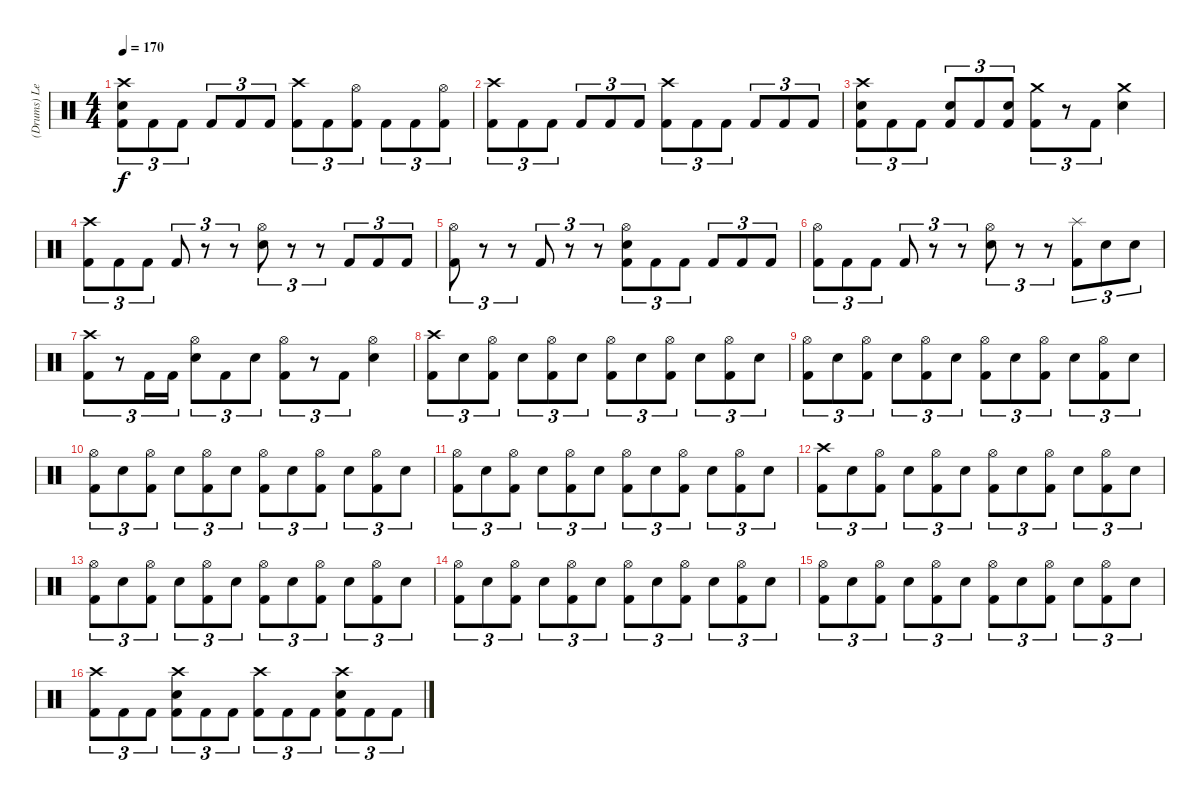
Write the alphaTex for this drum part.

\track ("(Drums) Leche" "(Drums) Le") {instrument percussion}
\staff {score}
\articulation defaults
\ts (4 4)
\tempo 170
\clef neutral
\ks c
("Crash high (hit)" "Electric Snare (hit)" "Kick (hit) 2").8{tu (3 2) dy f} "Kick (hit) 2".8{tu (3 2)} "Kick (hit) 2".8{tu (3 2)} "Kick (hit) 2".8{tu (3 2)} "Kick (hit) 2".8{tu (3 2)} "Kick (hit) 2".8{tu (3 2)} ("Crash high (hit)" "Kick (hit) 2").8{tu (3 2)} "Kick (hit) 2".8{tu (3 2)} ("Hi-Hat (open)" "Kick (hit) 2").8{tu (3 2)} "Kick (hit) 2".8{tu (3 2)} "Kick (hit) 2".8{tu (3 2)} ("Hi-Hat (open)" "Kick (hit) 2").8{tu (3 2)} |
("Crash high (hit)" "Kick (hit) 2").8{tu (3 2)} "Kick (hit) 2".8{tu (3 2)} "Kick (hit) 2".8{tu (3 2)} "Kick (hit) 2".8{tu (3 2)} "Kick (hit) 2".8{tu (3 2)} "Kick (hit) 2".8{tu (3 2)} ("Crash high (hit)" "Kick (hit) 2").8{tu (3 2)} "Kick (hit) 2".8{tu (3 2)} "Kick (hit) 2".8{tu (3 2)} "Kick (hit) 2".8{tu (3 2)} "Kick (hit) 2".8{tu (3 2)} "Kick (hit) 2".8{tu (3 2)} |
("Crash high (hit)" "Electric Snare (hit)" "Kick (hit) 2").8{tu (3 2)} "Kick (hit) 2".8{tu (3 2)} "Kick (hit) 2".8{tu (3 2)} ("Electric Snare (hit)" "Kick (hit) 2").8{tu (3 2)} "Kick (hit) 2".8{tu (3 2)} ("Electric Snare (hit)" "Kick (hit) 2").8{tu (3 2)} ("Crash medium (hit)" "Kick (hit) 2").8{tu (3 2)} r.8{tu (3 2)} "Kick (hit) 2".8{tu (3 2)} ("Crash medium (hit)" "Electric Snare (hit)").4 |
("Crash high (hit)" "Kick (hit) 2").8{tu (3 2)} "Kick (hit) 2".8{tu (3 2)} "Kick (hit) 2".8{tu (3 2)} "Kick (hit) 2".8{tu (3 2)} r.8{tu (3 2)} r.8{tu (3 2)} ("Hi-Hat (open)" "Electric Snare (hit)").8{tu (3 2)} r.8{tu (3 2)} r.8{tu (3 2)} "Kick (hit) 2".8{tu (3 2)} "Kick (hit) 2".8{tu (3 2)} "Kick (hit) 2".8{tu (3 2)} |
("Hi-Hat (open)" "Kick (hit) 2").8{tu (3 2)} r.8{tu (3 2)} r.8{tu (3 2)} "Kick (hit) 2".8{tu (3 2)} r.8{tu (3 2)} r.8{tu (3 2)} ("Hi-Hat (open)" "Electric Snare (hit)" "Kick (hit) 2").8{tu (3 2)} "Kick (hit) 2".8{tu (3 2)} "Kick (hit) 2".8{tu (3 2)} "Kick (hit) 2".8{tu (3 2)} "Kick (hit) 2".8{tu (3 2)} "Kick (hit) 2".8{tu (3 2)} |
("Hi-Hat (open)" "Kick (hit) 2").8{tu (3 2)} "Kick (hit) 2".8{tu (3 2)} "Kick (hit) 2".8{tu (3 2)} "Kick (hit) 2".8{tu (3 2)} r.8{tu (3 2)} r.8{tu (3 2)} ("Hi-Hat (open)" "Electric Snare (hit)").8{tu (3 2)} r.8{tu (3 2)} r.8{tu (3 2)} ("Splash (hit)" "Kick (hit) 2").8{tu (3 2)} "Electric Snare (hit)".8{tu (3 2)} "Electric Snare (hit)".8{tu (3 2)} |
("Crash high (hit)" "Kick (hit) 2").8{tu (3 2)} r.8{tu (3 2)} "Kick (hit) 2".16{tu (3 2)} "Kick (hit) 2".16{tu (3 2)} ("Hi-Hat (open)" "Electric Snare (hit)").8{tu (3 2)} "Kick (hit) 2".8{tu (3 2)} "Electric Snare (hit)".8{tu (3 2)} ("Hi-Hat (open)" "Kick (hit) 2").8{tu (3 2)} r.8{tu (3 2)} "Kick (hit) 2".8{tu (3 2)} ("Hi-Hat (open)" "Electric Snare (hit)").4 |
("Crash high (hit)" "Kick (hit) 2").8{tu (3 2)} "Electric Snare (hit)".8{tu (3 2)} ("Hi-Hat (open)" "Kick (hit) 2").8{tu (3 2)} "Electric Snare (hit)".8{tu (3 2)} ("Hi-Hat (open)" "Kick (hit) 2").8{tu (3 2)} "Electric Snare (hit)".8{tu (3 2)} ("Hi-Hat (open)" "Kick (hit) 2").8{tu (3 2)} "Electric Snare (hit)".8{tu (3 2)} ("Hi-Hat (open)" "Kick (hit) 2").8{tu (3 2)} "Electric Snare (hit)".8{tu (3 2)} ("Hi-Hat (open)" "Kick (hit) 2").8{tu (3 2)} "Electric Snare (hit)".8{tu (3 2)} |
("Hi-Hat (open)" "Kick (hit) 2").8{tu (3 2)} "Electric Snare (hit)".8{tu (3 2)} ("Hi-Hat (open)" "Kick (hit) 2").8{tu (3 2)} "Electric Snare (hit)".8{tu (3 2)} ("Hi-Hat (open)" "Kick (hit) 2").8{tu (3 2)} "Electric Snare (hit)".8{tu (3 2)} ("Hi-Hat (open)" "Kick (hit) 2").8{tu (3 2)} "Electric Snare (hit)".8{tu (3 2)} ("Hi-Hat (open)" "Kick (hit) 2").8{tu (3 2)} "Electric Snare (hit)".8{tu (3 2)} ("Hi-Hat (open)" "Kick (hit) 2").8{tu (3 2)} "Electric Snare (hit)".8{tu (3 2)} |
("Hi-Hat (open)" "Kick (hit) 2").8{tu (3 2)} "Electric Snare (hit)".8{tu (3 2)} ("Hi-Hat (open)" "Kick (hit) 2").8{tu (3 2)} "Electric Snare (hit)".8{tu (3 2)} ("Hi-Hat (open)" "Kick (hit) 2").8{tu (3 2)} "Electric Snare (hit)".8{tu (3 2)} ("Hi-Hat (open)" "Kick (hit) 2").8{tu (3 2)} "Electric Snare (hit)".8{tu (3 2)} ("Hi-Hat (open)" "Kick (hit) 2").8{tu (3 2)} "Electric Snare (hit)".8{tu (3 2)} ("Hi-Hat (open)" "Kick (hit) 2").8{tu (3 2)} "Electric Snare (hit)".8{tu (3 2)} |
("Hi-Hat (open)" "Kick (hit) 2").8{tu (3 2)} "Electric Snare (hit)".8{tu (3 2)} ("Hi-Hat (open)" "Kick (hit) 2").8{tu (3 2)} "Electric Snare (hit)".8{tu (3 2)} ("Hi-Hat (open)" "Kick (hit) 2").8{tu (3 2)} "Electric Snare (hit)".8{tu (3 2)} ("Hi-Hat (open)" "Kick (hit) 2").8{tu (3 2)} "Electric Snare (hit)".8{tu (3 2)} ("Hi-Hat (open)" "Kick (hit) 2").8{tu (3 2)} "Electric Snare (hit)".8{tu (3 2)} ("Hi-Hat (open)" "Kick (hit) 2").8{tu (3 2)} "Electric Snare (hit)".8{tu (3 2)} |
("Crash high (hit)" "Kick (hit) 2").8{tu (3 2)} "Electric Snare (hit)".8{tu (3 2)} ("Hi-Hat (open)" "Kick (hit) 2").8{tu (3 2)} "Electric Snare (hit)".8{tu (3 2)} ("Hi-Hat (open)" "Kick (hit) 2").8{tu (3 2)} "Electric Snare (hit)".8{tu (3 2)} ("Hi-Hat (open)" "Kick (hit) 2").8{tu (3 2)} "Electric Snare (hit)".8{tu (3 2)} ("Hi-Hat (open)" "Kick (hit) 2").8{tu (3 2)} "Electric Snare (hit)".8{tu (3 2)} ("Hi-Hat (open)" "Kick (hit) 2").8{tu (3 2)} "Electric Snare (hit)".8{tu (3 2)} |
("Hi-Hat (open)" "Kick (hit) 2").8{tu (3 2)} "Electric Snare (hit)".8{tu (3 2)} ("Hi-Hat (open)" "Kick (hit) 2").8{tu (3 2)} "Electric Snare (hit)".8{tu (3 2)} ("Hi-Hat (open)" "Kick (hit) 2").8{tu (3 2)} "Electric Snare (hit)".8{tu (3 2)} ("Hi-Hat (open)" "Kick (hit) 2").8{tu (3 2)} "Electric Snare (hit)".8{tu (3 2)} ("Hi-Hat (open)" "Kick (hit) 2").8{tu (3 2)} "Electric Snare (hit)".8{tu (3 2)} ("Hi-Hat (open)" "Kick (hit) 2").8{tu (3 2)} "Electric Snare (hit)".8{tu (3 2)} |
("Hi-Hat (open)" "Kick (hit) 2").8{tu (3 2)} "Electric Snare (hit)".8{tu (3 2)} ("Hi-Hat (open)" "Kick (hit) 2").8{tu (3 2)} "Electric Snare (hit)".8{tu (3 2)} ("Hi-Hat (open)" "Kick (hit) 2").8{tu (3 2)} "Electric Snare (hit)".8{tu (3 2)} ("Hi-Hat (open)" "Kick (hit) 2").8{tu (3 2)} "Electric Snare (hit)".8{tu (3 2)} ("Hi-Hat (open)" "Kick (hit) 2").8{tu (3 2)} "Electric Snare (hit)".8{tu (3 2)} ("Hi-Hat (open)" "Kick (hit) 2").8{tu (3 2)} "Electric Snare (hit)".8{tu (3 2)} |
("Hi-Hat (open)" "Kick (hit) 2").8{tu (3 2)} "Electric Snare (hit)".8{tu (3 2)} ("Hi-Hat (open)" "Kick (hit) 2").8{tu (3 2)} "Electric Snare (hit)".8{tu (3 2)} ("Hi-Hat (open)" "Kick (hit) 2").8{tu (3 2)} "Electric Snare (hit)".8{tu (3 2)} ("Hi-Hat (open)" "Kick (hit) 2").8{tu (3 2)} "Electric Snare (hit)".8{tu (3 2)} ("Hi-Hat (open)" "Kick (hit) 2").8{tu (3 2)} "Electric Snare (hit)".8{tu (3 2)} ("Hi-Hat (open)" "Kick (hit) 2").8{tu (3 2)} "Electric Snare (hit)".8{tu (3 2)} |
("Crash high (hit)" "Kick (hit) 2").8{tu (3 2)} "Kick (hit) 2".8{tu (3 2)} "Kick (hit) 2".8{tu (3 2)} ("Crash high (hit)" "Electric Snare (hit)" "Kick (hit) 2").8{tu (3 2)} "Kick (hit) 2".8{tu (3 2)} "Kick (hit) 2".8{tu (3 2)} ("Crash high (hit)" "Kick (hit) 2").8{tu (3 2)} "Kick (hit) 2".8{tu (3 2)} "Kick (hit) 2".8{tu (3 2)} ("Crash high (hit)" "Electric Snare (hit)" "Kick (hit) 2").8{tu (3 2)} "Kick (hit) 2".8{tu (3 2)} "Kick (hit) 2".8{tu (3 2)}
